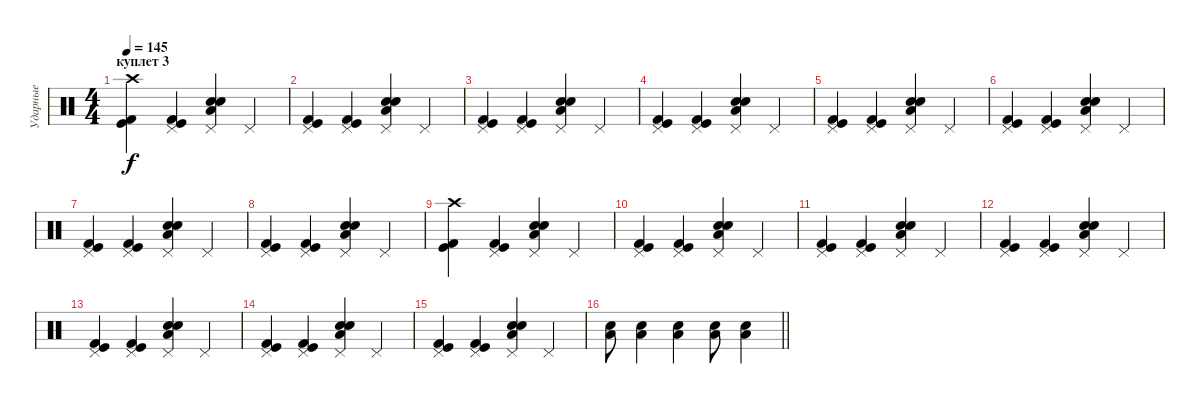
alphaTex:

\track ("Ударные" "Ударные") {instrument percussion}
\staff {score}
\articulation defaults
\ts (4 4)
\section ("" "куплет 3")
\tempo 145
\clef neutral
\ks c
("Crash high (hit)" "Kick (hit) 2" "Kick (hit)").4{dy f} ("Pedal Hi-Hat (hit)" "Kick (hit) 2" "Kick (hit)").4 ("Pedal Hi-Hat (hit)" "Snare (hit) 2" "Electric Snare (hit)" "Low Floor Tom (hit)").4 "Pedal Hi-Hat (hit)".4 |
("Pedal Hi-Hat (hit)" "Kick (hit) 2" "Kick (hit)").4 ("Pedal Hi-Hat (hit)" "Kick (hit) 2" "Kick (hit)").4 ("Pedal Hi-Hat (hit)" "Snare (hit) 2" "Electric Snare (hit)" "Low Floor Tom (hit)").4 "Pedal Hi-Hat (hit)".4 |
("Pedal Hi-Hat (hit)" "Kick (hit) 2" "Kick (hit)").4 ("Pedal Hi-Hat (hit)" "Kick (hit) 2" "Kick (hit)").4 ("Pedal Hi-Hat (hit)" "Snare (hit) 2" "Electric Snare (hit)" "Low Floor Tom (hit)").4 "Pedal Hi-Hat (hit)".4 |
("Pedal Hi-Hat (hit)" "Kick (hit) 2" "Kick (hit)").4 ("Pedal Hi-Hat (hit)" "Kick (hit) 2" "Kick (hit)").4 ("Pedal Hi-Hat (hit)" "Snare (hit) 2" "Electric Snare (hit)" "Low Floor Tom (hit)").4 "Pedal Hi-Hat (hit)".4 |
("Pedal Hi-Hat (hit)" "Kick (hit) 2" "Kick (hit)").4 ("Pedal Hi-Hat (hit)" "Kick (hit) 2" "Kick (hit)").4 ("Pedal Hi-Hat (hit)" "Snare (hit) 2" "Electric Snare (hit)" "Low Floor Tom (hit)").4 "Pedal Hi-Hat (hit)".4 |
("Pedal Hi-Hat (hit)" "Kick (hit) 2" "Kick (hit)").4 ("Pedal Hi-Hat (hit)" "Kick (hit) 2" "Kick (hit)").4 ("Pedal Hi-Hat (hit)" "Snare (hit) 2" "Electric Snare (hit)" "Low Floor Tom (hit)").4 "Pedal Hi-Hat (hit)".4 |
("Pedal Hi-Hat (hit)" "Kick (hit) 2" "Kick (hit)").4 ("Pedal Hi-Hat (hit)" "Kick (hit) 2" "Kick (hit)").4 ("Pedal Hi-Hat (hit)" "Snare (hit) 2" "Electric Snare (hit)" "Low Floor Tom (hit)").4 "Pedal Hi-Hat (hit)".4 |
("Pedal Hi-Hat (hit)" "Kick (hit) 2" "Kick (hit)").4 ("Pedal Hi-Hat (hit)" "Kick (hit) 2" "Kick (hit)").4 ("Pedal Hi-Hat (hit)" "Snare (hit) 2" "Electric Snare (hit)" "Low Floor Tom (hit)").4 "Pedal Hi-Hat (hit)".4 |
("Crash high (hit)" "Kick (hit) 2" "Kick (hit)").4 ("Pedal Hi-Hat (hit)" "Kick (hit) 2" "Kick (hit)").4 ("Pedal Hi-Hat (hit)" "Snare (hit) 2" "Electric Snare (hit)" "Low Floor Tom (hit)").4 "Pedal Hi-Hat (hit)".4 |
("Pedal Hi-Hat (hit)" "Kick (hit) 2" "Kick (hit)").4 ("Pedal Hi-Hat (hit)" "Kick (hit) 2" "Kick (hit)").4 ("Pedal Hi-Hat (hit)" "Snare (hit) 2" "Electric Snare (hit)" "Low Floor Tom (hit)").4 "Pedal Hi-Hat (hit)".4 |
("Pedal Hi-Hat (hit)" "Kick (hit) 2" "Kick (hit)").4 ("Pedal Hi-Hat (hit)" "Kick (hit) 2" "Kick (hit)").4 ("Pedal Hi-Hat (hit)" "Snare (hit) 2" "Electric Snare (hit)" "Low Floor Tom (hit)").4 "Pedal Hi-Hat (hit)".4 |
("Pedal Hi-Hat (hit)" "Kick (hit) 2" "Kick (hit)").4 ("Pedal Hi-Hat (hit)" "Kick (hit) 2" "Kick (hit)").4 ("Pedal Hi-Hat (hit)" "Snare (hit) 2" "Electric Snare (hit)" "Low Floor Tom (hit)").4 "Pedal Hi-Hat (hit)".4 |
("Pedal Hi-Hat (hit)" "Kick (hit) 2" "Kick (hit)").4 ("Pedal Hi-Hat (hit)" "Kick (hit) 2" "Kick (hit)").4 ("Pedal Hi-Hat (hit)" "Snare (hit) 2" "Electric Snare (hit)" "Low Floor Tom (hit)").4 "Pedal Hi-Hat (hit)".4 |
("Pedal Hi-Hat (hit)" "Kick (hit) 2" "Kick (hit)").4 ("Pedal Hi-Hat (hit)" "Kick (hit) 2" "Kick (hit)").4 ("Pedal Hi-Hat (hit)" "Snare (hit) 2" "Electric Snare (hit)" "Low Floor Tom (hit)").4 "Pedal Hi-Hat (hit)".4 |
("Pedal Hi-Hat (hit)" "Kick (hit) 2" "Kick (hit)").4 ("Pedal Hi-Hat (hit)" "Kick (hit) 2" "Kick (hit)").4 ("Pedal Hi-Hat (hit)" "Snare (hit) 2" "Electric Snare (hit)" "Low Floor Tom (hit)").4 "Pedal Hi-Hat (hit)".4 |
\barLineRight lightlight
("Electric Snare (hit)" "Low Floor Tom (hit)").8 ("Electric Snare (hit)" "Low Floor Tom (hit)").4 ("Electric Snare (hit)" "Low Floor Tom (hit)").4 ("Electric Snare (hit)" "Low Floor Tom (hit)").8 ("Electric Snare (hit)" "Low Floor Tom (hit)").4
